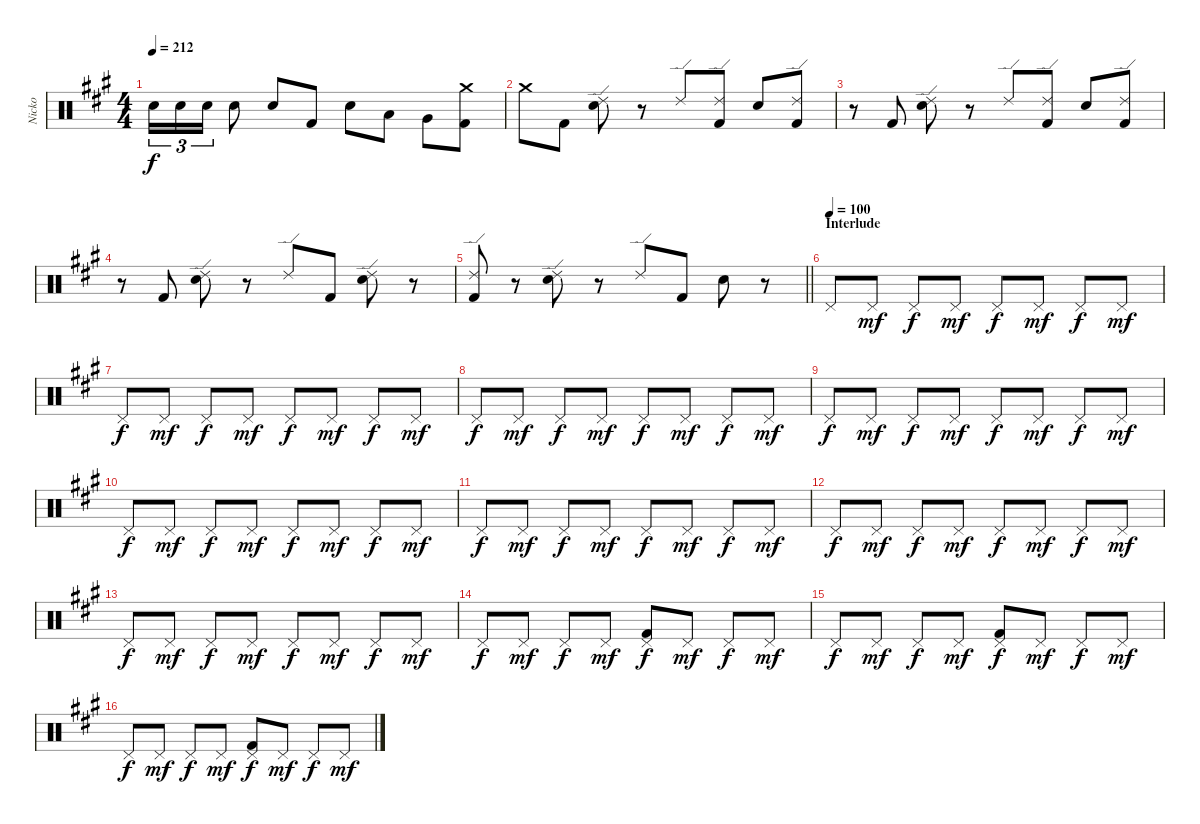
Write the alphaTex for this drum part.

\track ("Nicko" "Nicko") {instrument percussion}
\staff {score}
\articulation defaults
\ts (4 4)
\tempo 212
\clef neutral
\ks a "Snare (hit) 2".16{tu (3 2) dy f} "Snare (hit) 2".16{tu (3 2)} "Snare (hit) 2".16{tu (3 2)} "Snare (hit) 2".8 "Snare (hit) 2".8 "Kick (hit) 2".8 "Snare (hit) 2".8 "Low Tom (hit)".8 "Very Low Tom (hit)".8
("Crash medium (hit)" "Kick (hit) 2").8 |
"Crash medium (hit)".8 "Kick (hit) 2".8 ("Ride (edge) 2" "Snare (hit) 2").8 r.8 "Ride (edge) 2".8 ("Ride (edge) 2" "Kick (hit) 2").8 "Snare (hit) 2".8 ("Ride (edge) 2" "Kick (hit) 2").8 |
r.8 "Kick (hit) 2".8 ("Ride (edge) 2" "Snare (hit) 2").8 r.8 "Ride (edge) 2".8 ("Ride (edge) 2" "Kick (hit) 2").8 "Snare (hit) 2".8 ("Ride (edge) 2" "Kick (hit) 2").8 |
r.8 "Kick (hit) 2".8 ("Ride (edge) 2" "Snare (hit) 2").8 r.8 "Ride (edge) 2".8 "Kick (hit) 2".8 ("Ride (edge) 2" "Snare (hit) 2").8 r.8 |
\barLineRight lightlight
("Ride (edge) 2" "Kick (hit) 2").8 r.8 ("Ride (edge) 2" "Snare (hit) 2").8 r.8 "Ride (edge) 2".8 "Kick (hit) 2".8 "Snare (hit) 2".8 r.8 |
\section ("" "Interlude")
\tempo (100)
"Pedal Hi-Hat (hit)".8 "Pedal Hi-Hat (hit)".8{dy mf} "Pedal Hi-Hat (hit)".8{dy f} "Pedal Hi-Hat (hit)".8{dy mf} "Pedal Hi-Hat (hit)".8{dy f} "Pedal Hi-Hat (hit)".8{dy mf} "Pedal Hi-Hat (hit)".8{dy f} "Pedal Hi-Hat (hit)".8{dy mf} |
"Pedal Hi-Hat (hit)".8{dy f} "Pedal Hi-Hat (hit)".8{dy mf} "Pedal Hi-Hat (hit)".8{dy f} "Pedal Hi-Hat (hit)".8{dy mf} "Pedal Hi-Hat (hit)".8{dy f} "Pedal Hi-Hat (hit)".8{dy mf} "Pedal Hi-Hat (hit)".8{dy f} "Pedal Hi-Hat (hit)".8{dy mf} |
"Pedal Hi-Hat (hit)".8{dy f} "Pedal Hi-Hat (hit)".8{dy mf} "Pedal Hi-Hat (hit)".8{dy f} "Pedal Hi-Hat (hit)".8{dy mf} "Pedal Hi-Hat (hit)".8{dy f} "Pedal Hi-Hat (hit)".8{dy mf} "Pedal Hi-Hat (hit)".8{dy f} "Pedal Hi-Hat (hit)".8{dy mf} |
"Pedal Hi-Hat (hit)".8{dy f} "Pedal Hi-Hat (hit)".8{dy mf} "Pedal Hi-Hat (hit)".8{dy f} "Pedal Hi-Hat (hit)".8{dy mf} "Pedal Hi-Hat (hit)".8{dy f} "Pedal Hi-Hat (hit)".8{dy mf} "Pedal Hi-Hat (hit)".8{dy f} "Pedal Hi-Hat (hit)".8{dy mf} |
"Pedal Hi-Hat (hit)".8{dy f} "Pedal Hi-Hat (hit)".8{dy mf} "Pedal Hi-Hat (hit)".8{dy f} "Pedal Hi-Hat (hit)".8{dy mf} "Pedal Hi-Hat (hit)".8{dy f} "Pedal Hi-Hat (hit)".8{dy mf} "Pedal Hi-Hat (hit)".8{dy f} "Pedal Hi-Hat (hit)".8{dy mf} |
"Pedal Hi-Hat (hit)".8{dy f} "Pedal Hi-Hat (hit)".8{dy mf} "Pedal Hi-Hat (hit)".8{dy f} "Pedal Hi-Hat (hit)".8{dy mf} "Pedal Hi-Hat (hit)".8{dy f} "Pedal Hi-Hat (hit)".8{dy mf} "Pedal Hi-Hat (hit)".8{dy f} "Pedal Hi-Hat (hit)".8{dy mf} |
"Pedal Hi-Hat (hit)".8{dy f} "Pedal Hi-Hat (hit)".8{dy mf} "Pedal Hi-Hat (hit)".8{dy f} "Pedal Hi-Hat (hit)".8{dy mf} "Pedal Hi-Hat (hit)".8{dy f} "Pedal Hi-Hat (hit)".8{dy mf} "Pedal Hi-Hat (hit)".8{dy f} "Pedal Hi-Hat (hit)".8{dy mf} |
"Pedal Hi-Hat (hit)".8{dy f} "Pedal Hi-Hat (hit)".8{dy mf} "Pedal Hi-Hat (hit)".8{dy f} "Pedal Hi-Hat (hit)".8{dy mf} "Pedal Hi-Hat (hit)".8{dy f} "Pedal Hi-Hat (hit)".8{dy mf} "Pedal Hi-Hat (hit)".8{dy f} "Pedal Hi-Hat (hit)".8{dy mf} |
"Pedal Hi-Hat (hit)".8{dy f} "Pedal Hi-Hat (hit)".8{dy mf} "Pedal Hi-Hat (hit)".8{dy f} "Pedal Hi-Hat (hit)".8{dy mf} ("Pedal Hi-Hat (hit)" "Kick (hit) 2").8{dy f} "Pedal Hi-Hat (hit)".8{dy mf} "Pedal Hi-Hat (hit)".8{dy f} "Pedal Hi-Hat (hit)".8{dy mf} |
"Pedal Hi-Hat (hit)".8{dy f} "Pedal Hi-Hat (hit)".8{dy mf} "Pedal Hi-Hat (hit)".8{dy f} "Pedal Hi-Hat (hit)".8{dy mf} ("Pedal Hi-Hat (hit)" "Kick (hit) 2").8{dy f} "Pedal Hi-Hat (hit)".8{dy mf} "Pedal Hi-Hat (hit)".8{dy f} "Pedal Hi-Hat (hit)".8{dy mf} |
"Pedal Hi-Hat (hit)".8{dy f} "Pedal Hi-Hat (hit)".8{dy mf} "Pedal Hi-Hat (hit)".8{dy f} "Pedal Hi-Hat (hit)".8{dy mf} ("Pedal Hi-Hat (hit)" "Kick (hit) 2").8{dy f} "Pedal Hi-Hat (hit)".8{dy mf} "Pedal Hi-Hat (hit)".8{dy f} "Pedal Hi-Hat (hit)".8{dy mf}
